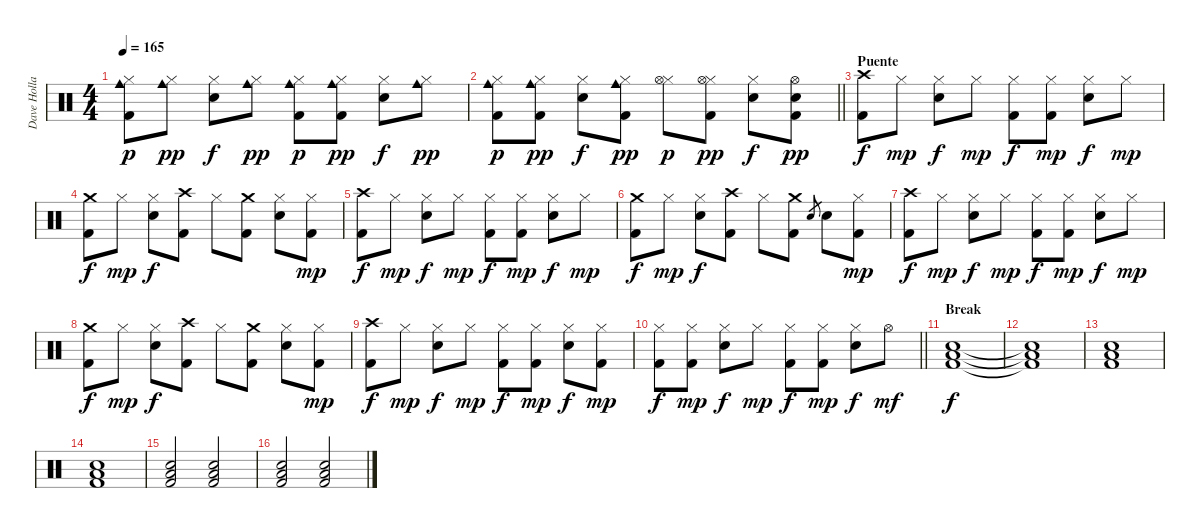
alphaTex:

\track ("Dave Holland" "Dave Holla") {instrument percussion}
\staff {score}
\articulation defaults
\ts (4 4)
\tempo 165
\clef neutral
\ks c
("Hi-Hat (closed)" "Cowbell medium (hit)" "Kick (hit) 2").8{dy p} ("Hi-Hat (closed)" "Cowbell medium (hit)").8{dy pp} ("Hi-Hat (closed)" "Snare (hit) 2").8{dy f} ("Hi-Hat (closed)" "Cowbell medium (hit)").8{dy pp} ("Hi-Hat (closed)" "Cowbell medium (hit)" "Kick (hit) 2").8{dy p} ("Hi-Hat (closed)" "Cowbell medium (hit)" "Kick (hit) 2").8{dy pp} ("Hi-Hat (closed)" "Snare (hit) 2").8{dy f} ("Hi-Hat (closed)" "Cowbell medium (hit)").8{dy pp} |
\barLineRight lightlight
("Hi-Hat (closed)" "Cowbell medium (hit)" "Kick (hit) 2").8{dy p} ("Hi-Hat (closed)" "Cowbell medium (hit)" "Kick (hit) 2").8{dy pp} ("Hi-Hat (closed)" "Snare (hit) 2").8{dy f} ("Hi-Hat (closed)" "Cowbell medium (hit)" "Kick (hit) 2").8{dy pp} ("Hi-Hat (closed)" "Hi-Hat (open)").8{dy p} ("Hi-Hat (closed)" "Hi-Hat (open)" "Kick (hit) 2").8{dy pp} ("Hi-Hat (closed)" "Snare (hit) 2").8{dy f} ("Snare (hit)" "Hi-Hat (open)" "Kick (hit) 2").8{dy pp} |
\section ("" "Puente")
("Crash high (hit)" "Kick (hit) 2").8{dy f} "Hi-Hat (closed)".8{dy mp} ("Hi-Hat (closed)" "Snare (hit) 2").8{dy f} "Hi-Hat (closed)".8{dy mp} ("Hi-Hat (closed)" "Kick (hit) 2").8{dy f} ("Hi-Hat (closed)" "Kick (hit) 2").8{dy mp} ("Hi-Hat (closed)" "Snare (hit) 2").8{dy f} "Hi-Hat (closed)".8{dy mp} |
("Crash medium (hit)" "Kick (hit) 2").8{dy f} "Hi-Hat (closed)".8{dy mp} ("Hi-Hat (closed)" "Snare (hit) 2").8{dy f} ("Crash high (hit)" "Kick (hit) 2").8 "Hi-Hat (closed)".8 ("Crash medium (hit)" "Kick (hit) 2").8 ("Hi-Hat (closed)" "Snare (hit) 2").8 ("Hi-Hat (closed)" "Kick (hit) 2").8{dy mp} |
("Crash high (hit)" "Kick (hit) 2").8{dy f} "Hi-Hat (closed)".8{dy mp} ("Hi-Hat (closed)" "Snare (hit) 2").8{dy f} "Hi-Hat (closed)".8{dy mp} ("Hi-Hat (closed)" "Kick (hit) 2").8{dy f} ("Hi-Hat (closed)" "Kick (hit) 2").8{dy mp} ("Hi-Hat (closed)" "Snare (hit) 2").8{dy f} "Hi-Hat (closed)".8{dy mp} |
("Crash medium (hit)" "Kick (hit) 2").8{dy f} "Hi-Hat (closed)".8{dy mp} ("Hi-Hat (closed)" "Snare (hit) 2").8{dy f} ("Crash high (hit)" "Kick (hit) 2").8 "Hi-Hat (closed)".8 ("Crash medium (hit)" "Kick (hit) 2").8 "Snare (hit) 2".8{gr} "Snare (hit) 2".8 ("Hi-Hat (closed)" "Kick (hit) 2").8{dy mp} |
("Crash high (hit)" "Kick (hit) 2").8{dy f} "Hi-Hat (closed)".8{dy mp} ("Hi-Hat (closed)" "Snare (hit) 2").8{dy f} "Hi-Hat (closed)".8{dy mp} ("Hi-Hat (closed)" "Kick (hit) 2").8{dy f} ("Hi-Hat (closed)" "Kick (hit) 2").8{dy mp} ("Hi-Hat (closed)" "Snare (hit) 2").8{dy f} "Hi-Hat (closed)".8{dy mp} |
("Crash medium (hit)" "Kick (hit) 2").8{dy f} "Hi-Hat (closed)".8{dy mp} ("Hi-Hat (closed)" "Snare (hit) 2").8{dy f} ("Crash high (hit)" "Kick (hit) 2").8 "Hi-Hat (closed)".8 ("Crash medium (hit)" "Kick (hit) 2").8 ("Hi-Hat (closed)" "Snare (hit) 2").8 ("Hi-Hat (closed)" "Kick (hit) 2").8{dy mp} |
("Crash high (hit)" "Kick (hit) 2").8{dy f} "Hi-Hat (closed)".8{dy mp} ("Hi-Hat (closed)" "Snare (hit) 2").8{dy f} "Hi-Hat (closed)".8{dy mp} ("Hi-Hat (closed)" "Kick (hit) 2").8{dy f} ("Hi-Hat (closed)" "Kick (hit) 2").8{dy mp} ("Hi-Hat (closed)" "Snare (hit) 2").8{dy f} ("Hi-Hat (closed)" "Kick (hit) 2").8{dy mp} |
\barLineRight lightlight
("Hi-Hat (closed)" "Kick (hit) 2").8{dy f} ("Hi-Hat (closed)" "Kick (hit) 2").8{dy mp} ("Hi-Hat (closed)" "Snare (hit) 2").8{dy f} "Hi-Hat (closed)".8{dy mp} ("Hi-Hat (closed)" "Kick (hit) 2").8{dy f} ("Hi-Hat (closed)" "Kick (hit) 2").8{dy mp} ("Hi-Hat (closed)" "Snare (hit) 2").8{dy f} "Hi-Hat (open)".8{dy mf} |
\section ("" "Break")
("Snare (hit) 2" "Low Floor Tom (hit)" "Kick (hit) 2").1{dy f} |
("Snare (hit) 2"{t} "Low Floor Tom (hit)"{t} "Kick (hit) 2"{t}).1 |
("Snare (hit) 2" "Low Floor Tom (hit)" "Kick (hit) 2").1 |
("Snare (hit) 2" "Low Floor Tom (hit)" "Kick (hit) 2").1 |
("Snare (hit) 2" "Low Floor Tom (hit)" "Kick (hit) 2").2 ("Snare (hit) 2" "Low Floor Tom (hit)" "Kick (hit) 2").2 |
("Snare (hit) 2" "Low Floor Tom (hit)" "Kick (hit) 2").2 ("Snare (hit) 2" "Low Floor Tom (hit)" "Kick (hit) 2").2
